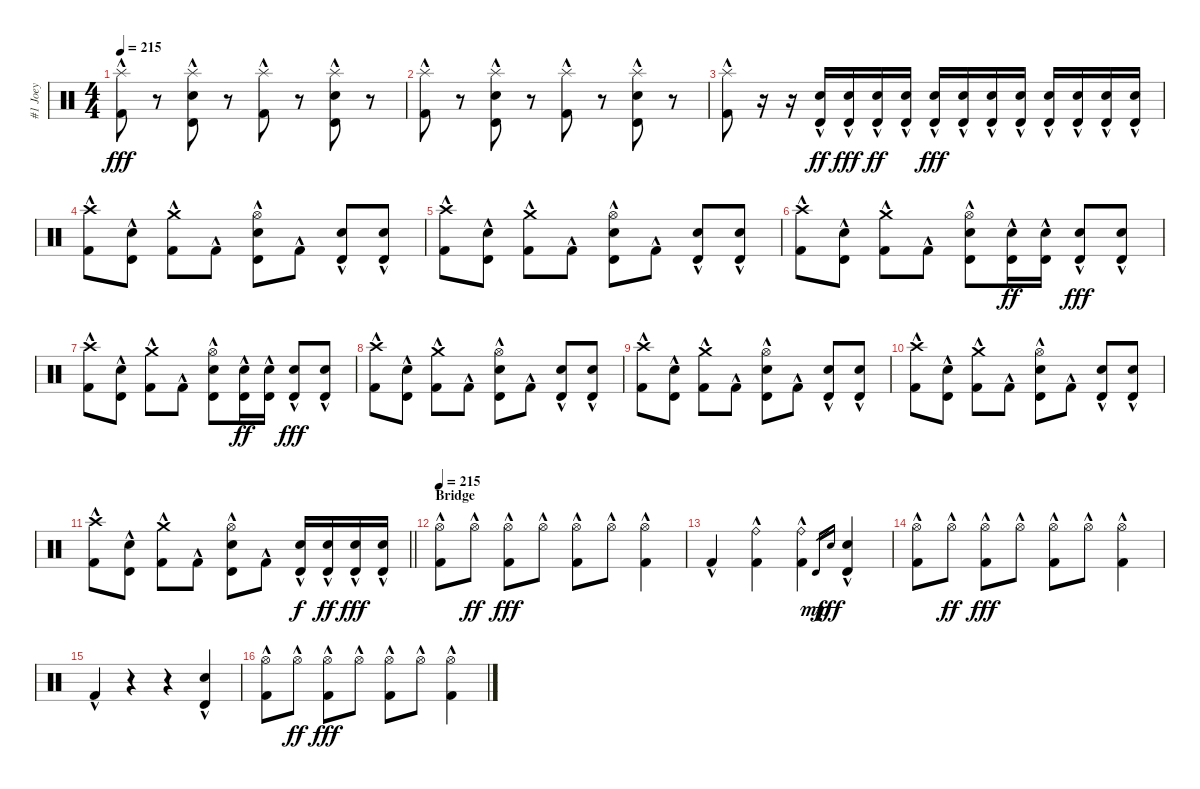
\track ("#1 Joey" "#1 Joey") {instrument percussion}
\staff {score}
\articulation defaults
\ts (4 4)
\tempo 215
\clef neutral
\ks c
("Splash (hit)"{hac} "Kick (hit) 2"{hac}).8{dy fff} r.8 ("Splash (hit)"{hac} "Timbale high (hit)"{hac} "Electric Snare (hit)"{hac}).8 r.8 ("Splash (hit)"{hac} "Kick (hit) 2"{hac}).8 r.8 ("Splash (hit)"{hac} "Timbale high (hit)"{hac} "Electric Snare (hit)"{hac}).8 r.8 |
("Splash (hit)"{hac} "Kick (hit) 2"{hac}).8 r.8 ("Splash (hit)"{hac} "Timbale high (hit)"{hac} "Electric Snare (hit)"{hac}).8 r.8 ("Splash (hit)"{hac} "Kick (hit) 2"{hac}).8 r.8 ("Splash (hit)"{hac} "Timbale high (hit)"{hac} "Electric Snare (hit)"{hac}).8 r.8 |
("Splash (hit)"{hac} "Kick (hit) 2"{hac}).8 r.16 r.16 ("Timbale high (hit)"{hac} "Electric Snare (hit)"{hac}).16{dy ff} ("Timbale high (hit)"{hac} "Electric Snare (hit)"{hac}).16{dy fff} ("Timbale high (hit)"{hac} "Electric Snare (hit)"{hac}).16{dy ff} ("Timbale high (hit)"{hac} "Electric Snare (hit)"{hac}).16 ("Timbale high (hit)"{hac} "Electric Snare (hit)"{hac}).16{dy fff} ("Timbale high (hit)"{hac} "Electric Snare (hit)"{hac}).16 ("Timbale high (hit)"{hac} "Electric Snare (hit)"{hac}).16 ("Timbale high (hit)"{hac} "Electric Snare (hit)"{hac}).16 ("Timbale high (hit)"{hac} "Electric Snare (hit)"{hac}).16 ("Timbale high (hit)"{hac} "Electric Snare (hit)"{hac}).16 ("Timbale high (hit)"{hac} "Electric Snare (hit)"{hac}).16 ("Timbale high (hit)"{hac} "Electric Snare (hit)"{hac}).16 |
("Crash high (hit)"{hac} "Kick (hit) 2"{hac}).8 ("Timbale high (hit)"{hac} "Electric Snare (hit)"{hac}).8 ("Crash medium (hit)"{hac} "Kick (hit) 2"{hac}).8 "Kick (hit) 2"{hac}.8 ("Hi-Hat (open)"{hac} "Timbale high (hit)"{hac} "Electric Snare (hit)"{hac}).8 "Kick (hit) 2"{hac}.8 ("Timbale high (hit)"{hac} "Electric Snare (hit)"{hac}).8 ("Timbale high (hit)"{hac} "Electric Snare (hit)"{hac}).8 |
("Crash high (hit)"{hac} "Kick (hit) 2"{hac}).8 ("Timbale high (hit)"{hac} "Electric Snare (hit)"{hac}).8 ("Crash medium (hit)"{hac} "Kick (hit) 2"{hac}).8 "Kick (hit) 2"{hac}.8 ("Hi-Hat (open)"{hac} "Timbale high (hit)"{hac} "Electric Snare (hit)"{hac}).8 "Kick (hit) 2"{hac}.8 ("Timbale high (hit)"{hac} "Electric Snare (hit)"{hac}).8 ("Timbale high (hit)"{hac} "Electric Snare (hit)"{hac}).8 |
("Crash high (hit)"{hac} "Kick (hit) 2"{hac}).8 ("Timbale high (hit)"{hac} "Electric Snare (hit)"{hac}).8 ("Crash medium (hit)"{hac} "Kick (hit) 2"{hac}).8 "Kick (hit) 2"{hac}.8 ("Hi-Hat (open)"{hac} "Timbale high (hit)"{hac} "Electric Snare (hit)"{hac}).8 ("Timbale high (hit)"{hac} "Electric Snare (hit)"{hac}).16{dy ff} ("Timbale high (hit)"{hac} "Electric Snare (hit)"{hac}).16 ("Timbale high (hit)"{hac} "Electric Snare (hit)"{hac}).8{dy fff} ("Timbale high (hit)"{hac} "Electric Snare (hit)"{hac}).8 |
("Crash high (hit)"{hac} "Kick (hit) 2"{hac}).8 ("Timbale high (hit)"{hac} "Electric Snare (hit)"{hac}).8 ("Crash medium (hit)"{hac} "Kick (hit) 2"{hac}).8 "Kick (hit) 2"{hac}.8 ("Hi-Hat (open)"{hac} "Timbale high (hit)"{hac} "Electric Snare (hit)"{hac}).8 ("Timbale high (hit)"{hac} "Electric Snare (hit)"{hac}).16{dy ff} ("Timbale high (hit)"{hac} "Electric Snare (hit)"{hac}).16 ("Timbale high (hit)"{hac} "Electric Snare (hit)"{hac}).8{dy fff} ("Timbale high (hit)"{hac} "Electric Snare (hit)"{hac}).8 |
("Crash high (hit)"{hac} "Kick (hit) 2"{hac}).8 ("Timbale high (hit)"{hac} "Electric Snare (hit)"{hac}).8 ("Crash medium (hit)"{hac} "Kick (hit) 2"{hac}).8 "Kick (hit) 2"{hac}.8 ("Hi-Hat (open)"{hac} "Timbale high (hit)"{hac} "Electric Snare (hit)"{hac}).8 "Kick (hit) 2"{hac}.8 ("Timbale high (hit)"{hac} "Electric Snare (hit)"{hac}).8 ("Timbale high (hit)"{hac} "Electric Snare (hit)"{hac}).8 |
("Crash high (hit)"{hac} "Kick (hit) 2"{hac}).8 ("Timbale high (hit)"{hac} "Electric Snare (hit)"{hac}).8 ("Crash medium (hit)"{hac} "Kick (hit) 2"{hac}).8 "Kick (hit) 2"{hac}.8 ("Hi-Hat (open)"{hac} "Timbale high (hit)"{hac} "Electric Snare (hit)"{hac}).8 "Kick (hit) 2"{hac}.8 ("Timbale high (hit)"{hac} "Electric Snare (hit)"{hac}).8 ("Timbale high (hit)"{hac} "Electric Snare (hit)"{hac}).8 |
("Crash high (hit)"{hac} "Kick (hit) 2"{hac}).8 ("Timbale high (hit)"{hac} "Electric Snare (hit)"{hac}).8 ("Crash medium (hit)"{hac} "Kick (hit) 2"{hac}).8 "Kick (hit) 2"{hac}.8 ("Hi-Hat (open)"{hac} "Timbale high (hit)"{hac} "Electric Snare (hit)"{hac}).8 "Kick (hit) 2"{hac}.8 ("Timbale high (hit)"{hac} "Electric Snare (hit)"{hac}).8 ("Timbale high (hit)"{hac} "Electric Snare (hit)"{hac}).8 |
\barLineRight lightlight
("Crash high (hit)"{hac} "Kick (hit) 2"{hac}).8 ("Timbale high (hit)"{hac} "Electric Snare (hit)"{hac}).8 ("Crash medium (hit)"{hac} "Kick (hit) 2"{hac}).8 "Kick (hit) 2"{hac}.8 ("Hi-Hat (open)"{hac} "Timbale high (hit)"{hac} "Electric Snare (hit)"{hac}).8 "Kick (hit) 2"{hac}.8 ("Timbale high (hit)"{hac} "Electric Snare (hit)"{hac}).16{dy f} ("Timbale high (hit)"{hac} "Electric Snare (hit)"{hac}).16{dy ff} ("Timbale high (hit)"{hac} "Electric Snare (hit)"{hac}).16{dy fff} ("Timbale high (hit)"{hac} "Electric Snare (hit)"{hac}).16 |
\section ("" "Bridge")
\tempo 215
("Hi-Hat (open)"{hac} "Kick (hit) 2"{hac}).8 "Hi-Hat (open)"{hac}.8{dy ff} ("Hi-Hat (open)"{hac} "Kick (hit) 2"{hac}).8{dy fff} "Hi-Hat (open)"{hac}.8 ("Hi-Hat (open)"{hac} "Kick (hit) 2"{hac}).8 "Hi-Hat (open)"{hac}.8 ("Hi-Hat (open)"{hac} "Kick (hit) 2"{hac}).4 |
"Kick (hit) 2"{hac}.4 ("Ride (bell)"{hac} "Kick (hit) 2"{hac}).4 ("Ride (bell)"{hac} "Kick (hit) 2"{hac}).4 "Timbale high (hit)".16{gr dy mp} "Electric Snare (hit)".16{gr dy fff} ("Timbale high (hit)"{hac} "Electric Snare (hit)"{hac}).4 |
("Hi-Hat (open)"{hac} "Kick (hit) 2"{hac}).8 "Hi-Hat (open)"{hac}.8{dy ff} ("Hi-Hat (open)"{hac} "Kick (hit) 2"{hac}).8{dy fff} "Hi-Hat (open)"{hac}.8 ("Hi-Hat (open)"{hac} "Kick (hit) 2"{hac}).8 "Hi-Hat (open)"{hac}.8 ("Hi-Hat (open)"{hac} "Kick (hit) 2"{hac}).4 |
"Kick (hit) 2"{hac}.4 r.4 r.4 ("Timbale high (hit)"{hac} "Electric Snare (hit)"{hac}).4 |
("Hi-Hat (open)"{hac} "Kick (hit) 2"{hac}).8 "Hi-Hat (open)"{hac}.8{dy ff} ("Hi-Hat (open)"{hac} "Kick (hit) 2"{hac}).8{dy fff} "Hi-Hat (open)"{hac}.8 ("Hi-Hat (open)"{hac} "Kick (hit) 2"{hac}).8 "Hi-Hat (open)"{hac}.8 ("Hi-Hat (open)"{hac} "Kick (hit) 2"{hac}).4
